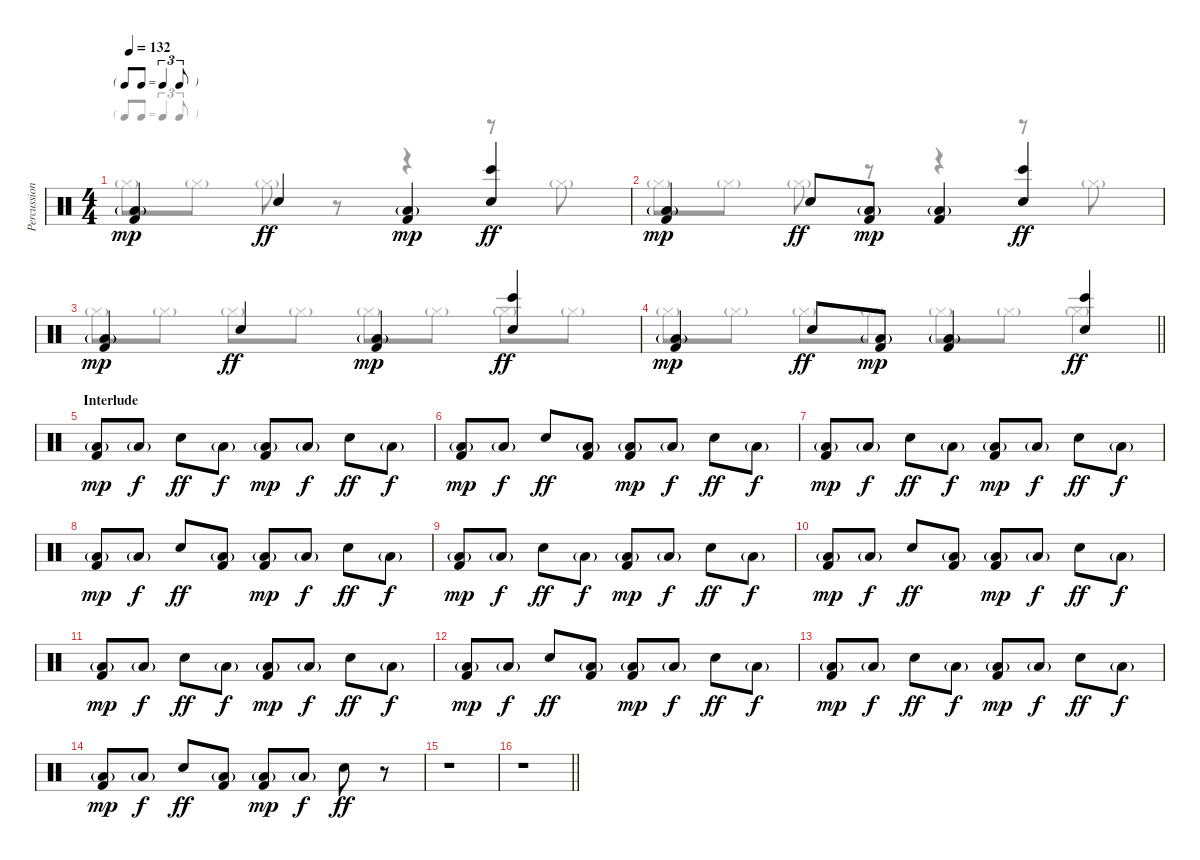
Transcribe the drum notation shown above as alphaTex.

\track ("Percussion" "Percussion") {instrument percussion}
\staff {score}
\articulation defaults
\voice
\ts (4 4)
\tf triplet8th
\tempo 132
\clef neutral
\ks c
("Kick (hit) 2" "Low Floor Tom (hit)"{g}).4{dy mp} "Snare (hit) 2".4{dy ff} ("Kick (hit) 2" "Low Floor Tom (hit)"{g}).4{dy mp} ("Snare (hit) 2" "Bongo High (hit)").4{dy ff} |
("Kick (hit) 2" "Low Floor Tom (hit)"{g}).4{dy mp} "Snare (hit) 2".8{dy ff} ("Kick (hit) 2" "Low Floor Tom (hit)"{g}).8{dy mp} ("Kick (hit) 2" "Low Floor Tom (hit)"{g}).4 ("Snare (hit) 2" "Bongo High (hit)").4{dy ff} |
("Kick (hit) 2" "Low Floor Tom (hit)"{g}).4{dy mp} "Snare (hit) 2".4{dy ff} ("Kick (hit) 2" "Low Floor Tom (hit)"{g}).4{dy mp} ("Snare (hit) 2" "Bongo High (hit)").4{dy ff} |
\barLineRight lightlight
("Kick (hit) 2" "Low Floor Tom (hit)"{g}).4{dy mp} "Snare (hit) 2".8{dy ff} ("Kick (hit) 2" "Low Floor Tom (hit)"{g}).8{dy mp} ("Kick (hit) 2" "Low Floor Tom (hit)"{g}).4 ("Snare (hit) 2" "Bongo High (hit)").4{dy ff} |
\section ("" "Interlude")
("Kick (hit) 2" "Low Floor Tom (hit)"{g}).8{dy mp} "Low Floor Tom (hit)"{g}.8{dy f} "Snare (hit) 2".8{dy ff} "Low Floor Tom (hit)"{g}.8{dy f} ("Kick (hit) 2" "Low Floor Tom (hit)"{g}).8{dy mp} "Low Floor Tom (hit)"{g}.8{dy f} "Snare (hit) 2".8{dy ff} "Low Floor Tom (hit)"{g}.8{dy f} |
("Kick (hit) 2" "Low Floor Tom (hit)"{g}).8{dy mp} "Low Floor Tom (hit)"{g}.8{dy f} "Snare (hit) 2".8{dy ff} ("Kick (hit) 2" "Low Floor Tom (hit)"{g}).8 ("Kick (hit) 2" "Low Floor Tom (hit)"{g}).8{dy mp} "Low Floor Tom (hit)"{g}.8{dy f} "Snare (hit) 2".8{dy ff} "Low Floor Tom (hit)"{g}.8{dy f} |
("Kick (hit) 2" "Low Floor Tom (hit)"{g}).8{dy mp} "Low Floor Tom (hit)"{g}.8{dy f} "Snare (hit) 2".8{dy ff} "Low Floor Tom (hit)"{g}.8{dy f} ("Kick (hit) 2" "Low Floor Tom (hit)"{g}).8{dy mp} "Low Floor Tom (hit)"{g}.8{dy f} "Snare (hit) 2".8{dy ff} "Low Floor Tom (hit)"{g}.8{dy f} |
("Kick (hit) 2" "Low Floor Tom (hit)"{g}).8{dy mp} "Low Floor Tom (hit)"{g}.8{dy f} "Snare (hit) 2".8{dy ff} ("Kick (hit) 2" "Low Floor Tom (hit)"{g}).8 ("Kick (hit) 2" "Low Floor Tom (hit)"{g}).8{dy mp} "Low Floor Tom (hit)"{g}.8{dy f} "Snare (hit) 2".8{dy ff} "Low Floor Tom (hit)"{g}.8{dy f} |
("Kick (hit) 2" "Low Floor Tom (hit)"{g}).8{dy mp} "Low Floor Tom (hit)"{g}.8{dy f} "Snare (hit) 2".8{dy ff} "Low Floor Tom (hit)"{g}.8{dy f} ("Kick (hit) 2" "Low Floor Tom (hit)"{g}).8{dy mp} "Low Floor Tom (hit)"{g}.8{dy f} "Snare (hit) 2".8{dy ff} "Low Floor Tom (hit)"{g}.8{dy f} |
("Kick (hit) 2" "Low Floor Tom (hit)"{g}).8{dy mp} "Low Floor Tom (hit)"{g}.8{dy f} "Snare (hit) 2".8{dy ff} ("Kick (hit) 2" "Low Floor Tom (hit)"{g}).8 ("Kick (hit) 2" "Low Floor Tom (hit)"{g}).8{dy mp} "Low Floor Tom (hit)"{g}.8{dy f} "Snare (hit) 2".8{dy ff} "Low Floor Tom (hit)"{g}.8{dy f} |
("Kick (hit) 2" "Low Floor Tom (hit)"{g}).8{dy mp} "Low Floor Tom (hit)"{g}.8{dy f} "Snare (hit) 2".8{dy ff} "Low Floor Tom (hit)"{g}.8{dy f} ("Kick (hit) 2" "Low Floor Tom (hit)"{g}).8{dy mp} "Low Floor Tom (hit)"{g}.8{dy f} "Snare (hit) 2".8{dy ff} "Low Floor Tom (hit)"{g}.8{dy f} |
("Kick (hit) 2" "Low Floor Tom (hit)"{g}).8{dy mp} "Low Floor Tom (hit)"{g}.8{dy f} "Snare (hit) 2".8{dy ff} ("Kick (hit) 2" "Low Floor Tom (hit)"{g}).8 ("Kick (hit) 2" "Low Floor Tom (hit)"{g}).8{dy mp} "Low Floor Tom (hit)"{g}.8{dy f} "Snare (hit) 2".8{dy ff} "Low Floor Tom (hit)"{g}.8{dy f} |
("Kick (hit) 2" "Low Floor Tom (hit)"{g}).8{dy mp} "Low Floor Tom (hit)"{g}.8{dy f} "Snare (hit) 2".8{dy ff} "Low Floor Tom (hit)"{g}.8{dy f} ("Kick (hit) 2" "Low Floor Tom (hit)"{g}).8{dy mp} "Low Floor Tom (hit)"{g}.8{dy f} "Snare (hit) 2".8{dy ff} "Low Floor Tom (hit)"{g}.8{dy f} |
("Kick (hit) 2" "Low Floor Tom (hit)"{g}).8{dy mp} "Low Floor Tom (hit)"{g}.8{dy f} "Snare (hit) 2".8{dy ff} ("Kick (hit) 2" "Low Floor Tom (hit)"{g}).8 ("Kick (hit) 2" "Low Floor Tom (hit)"{g}).8{dy mp} "Low Floor Tom (hit)"{g}.8{dy f} "Snare (hit) 2".8{dy ff} r.8 |
r.1 |
\barLineRight lightlight
r.1
\voice
\clef neutral
\ottava regular
\simile none
\ks c "Hi-Hat (closed)"{g}.8{dy mp} "Hi-Hat (closed)"{g}.8 "Hi-Hat (closed)"{g}.8
r.8 r.4 r.8 "Hi-Hat (closed)"{g}.8 |
"Hi-Hat (closed)"{g}.8 "Hi-Hat (closed)"{g}.8 "Hi-Hat (closed)"{g}.8 r.8 r.4 r.8 "Hi-Hat (closed)"{g}.8 |
"Hi-Hat (closed)"{g}.8 "Hi-Hat (closed)"{g}.8 "Hi-Hat (closed)"{g}.8 "Hi-Hat (closed)"{g}.8 "Hi-Hat (closed)"{g}.8 "Hi-Hat (closed)"{g}.8 "Hi-Hat (closed)"{g}.8 "Hi-Hat (closed)"{g}.8 |
\barLineRight lightlight "Hi-Hat (closed)"{g}.8 "Hi-Hat (closed)"{g}.8 "Hi-Hat (closed)"{g}.8 "Hi-Hat (closed)"{g}.8 "Hi-Hat (closed)"{g}.8 "Hi-Hat (closed)"{g}.8 "Hi-Hat (closed)"{g}.4
|
|
|
|
|
|
|
|
|
|
|
|
\barLineRight lightlight
